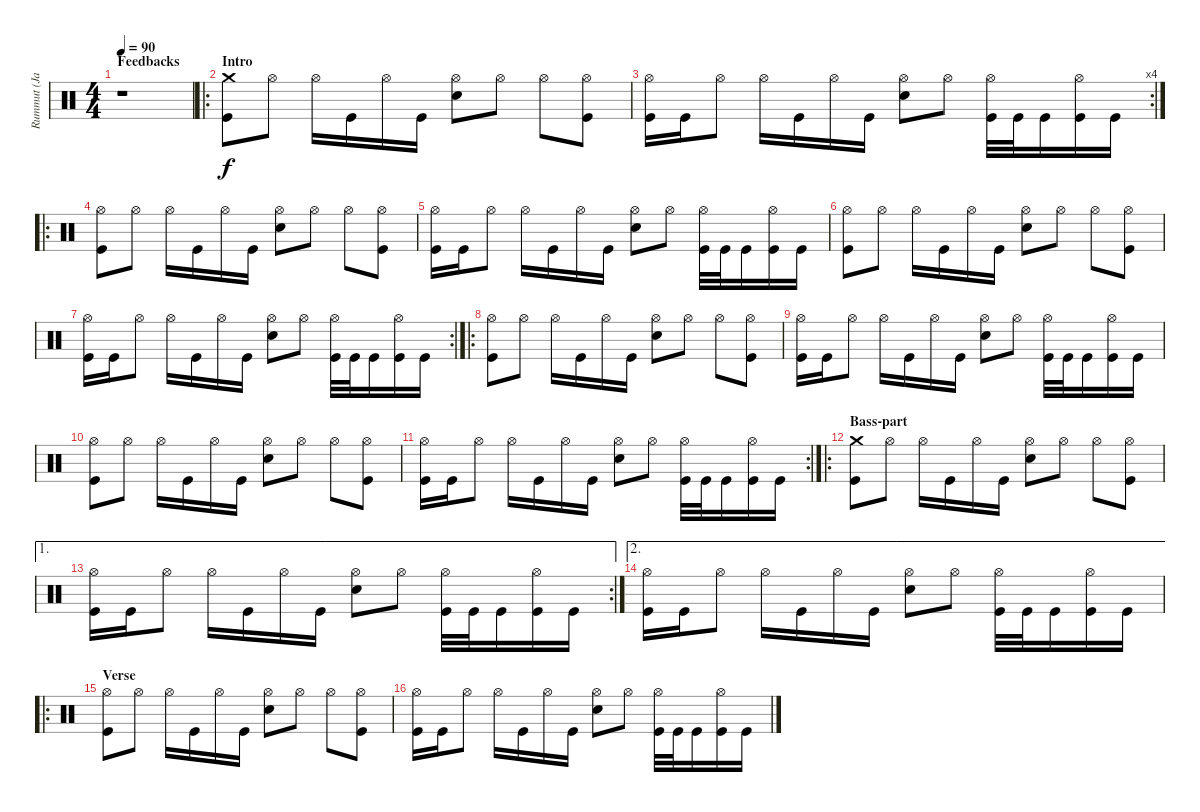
\track ("Rummut (Janne)" "Rummut (Ja") {instrument percussion}
\staff {score}
\articulation defaults
\ts (4 4)
\section ("" "Feedbacks")
\tempo 90
\clef neutral
\ks c
r.1{dy f} |
\ro
\section ("" "Intro")
("Crash medium (hit)" "Kick (hit)").8 "Hi-Hat (open)".8 "Hi-Hat (open)".16 "Kick (hit)".16 "Hi-Hat (open)".16 "Kick (hit)".16 ("Hi-Hat (open)" "Snare (hit) 2").8 "Hi-Hat (open)".8 "Hi-Hat (open)".8 ("Hi-Hat (open)" "Kick (hit)").8 |
\rc 4
("Hi-Hat (open)" "Kick (hit)").16 "Kick (hit)".16 "Hi-Hat (open)".8 "Hi-Hat (open)".16 "Kick (hit)".16 "Hi-Hat (open)".16 "Kick (hit)".16 ("Hi-Hat (open)" "Snare (hit) 2").8 "Hi-Hat (open)".8 ("Hi-Hat (open)" "Kick (hit)").32 "Kick (hit)".32 "Kick (hit)".16 ("Hi-Hat (open)" "Kick (hit)").16 "Kick (hit)".16 |
\ro
("Hi-Hat (open)" "Kick (hit)").8 "Hi-Hat (open)".8 "Hi-Hat (open)".16 "Kick (hit)".16 "Hi-Hat (open)".16 "Kick (hit)".16 ("Hi-Hat (open)" "Snare (hit) 2").8 "Hi-Hat (open)".8 "Hi-Hat (open)".8 ("Hi-Hat (open)" "Kick (hit)").8 |
("Hi-Hat (open)" "Kick (hit)").16 "Kick (hit)".16 "Hi-Hat (open)".8 "Hi-Hat (open)".16 "Kick (hit)".16 "Hi-Hat (open)".16 "Kick (hit)".16 ("Hi-Hat (open)" "Snare (hit) 2").8 "Hi-Hat (open)".8 ("Hi-Hat (open)" "Kick (hit)").32 "Kick (hit)".32 "Kick (hit)".16 ("Hi-Hat (open)" "Kick (hit)").16 "Kick (hit)".16 |
("Hi-Hat (open)" "Kick (hit)").8 "Hi-Hat (open)".8 "Hi-Hat (open)".16 "Kick (hit)".16 "Hi-Hat (open)".16 "Kick (hit)".16 ("Hi-Hat (open)" "Snare (hit) 2").8 "Hi-Hat (open)".8 "Hi-Hat (open)".8 ("Hi-Hat (open)" "Kick (hit)").8 |
\rc 2
("Hi-Hat (open)" "Kick (hit)").16 "Kick (hit)".16 "Hi-Hat (open)".8 "Hi-Hat (open)".16 "Kick (hit)".16 "Hi-Hat (open)".16 "Kick (hit)".16 ("Hi-Hat (open)" "Snare (hit) 2").8 "Hi-Hat (open)".8 ("Hi-Hat (open)" "Kick (hit)").32 "Kick (hit)".32 "Kick (hit)".16 ("Hi-Hat (open)" "Kick (hit)").16 "Kick (hit)".16 |
\ro
("Hi-Hat (open)" "Kick (hit)").8 "Hi-Hat (open)".8 "Hi-Hat (open)".16 "Kick (hit)".16 "Hi-Hat (open)".16 "Kick (hit)".16 ("Hi-Hat (open)" "Snare (hit) 2").8 "Hi-Hat (open)".8 "Hi-Hat (open)".8 ("Hi-Hat (open)" "Kick (hit)").8 |
("Hi-Hat (open)" "Kick (hit)").16 "Kick (hit)".16 "Hi-Hat (open)".8 "Hi-Hat (open)".16 "Kick (hit)".16 "Hi-Hat (open)".16 "Kick (hit)".16 ("Hi-Hat (open)" "Snare (hit) 2").8 "Hi-Hat (open)".8 ("Hi-Hat (open)" "Kick (hit)").32 "Kick (hit)".32 "Kick (hit)".16 ("Hi-Hat (open)" "Kick (hit)").16 "Kick (hit)".16 |
("Hi-Hat (open)" "Kick (hit)").8 "Hi-Hat (open)".8 "Hi-Hat (open)".16 "Kick (hit)".16 "Hi-Hat (open)".16 "Kick (hit)".16 ("Hi-Hat (open)" "Snare (hit) 2").8 "Hi-Hat (open)".8 "Hi-Hat (open)".8 ("Hi-Hat (open)" "Kick (hit)").8 |
\rc 2
("Hi-Hat (open)" "Kick (hit)").16 "Kick (hit)".16 "Hi-Hat (open)".8 "Hi-Hat (open)".16 "Kick (hit)".16 "Hi-Hat (open)".16 "Kick (hit)".16 ("Hi-Hat (open)" "Snare (hit) 2").8 "Hi-Hat (open)".8 ("Hi-Hat (open)" "Kick (hit)").32 "Kick (hit)".32 "Kick (hit)".16 ("Hi-Hat (open)" "Kick (hit)").16 "Kick (hit)".16 |
\ro
\section ("" "Bass-part")
("Crash medium (hit)" "Kick (hit)").8 "Hi-Hat (open)".8 "Hi-Hat (open)".16 "Kick (hit)".16 "Hi-Hat (open)".16 "Kick (hit)".16 ("Hi-Hat (open)" "Snare (hit) 2").8 "Hi-Hat (open)".8 "Hi-Hat (open)".8 ("Hi-Hat (open)" "Kick (hit)").8 |
\ae 1
\rc 2
("Hi-Hat (open)" "Kick (hit)").16 "Kick (hit)".16 "Hi-Hat (open)".8 "Hi-Hat (open)".16 "Kick (hit)".16 "Hi-Hat (open)".16 "Kick (hit)".16 ("Hi-Hat (open)" "Snare (hit) 2").8 "Hi-Hat (open)".8 ("Hi-Hat (open)" "Kick (hit)").32 "Kick (hit)".32 "Kick (hit)".16 ("Hi-Hat (open)" "Kick (hit)").16 "Kick (hit)".16 |
\ae 2
("Hi-Hat (open)" "Kick (hit)").16 "Kick (hit)".16 "Hi-Hat (open)".8 "Hi-Hat (open)".16 "Kick (hit)".16 "Hi-Hat (open)".16 "Kick (hit)".16 ("Hi-Hat (open)" "Snare (hit) 2").8 "Hi-Hat (open)".8 ("Hi-Hat (open)" "Kick (hit)").32 "Kick (hit)".32 "Kick (hit)".16 ("Hi-Hat (open)" "Kick (hit)").16 "Kick (hit)".16 |
\ro
\section ("" "Verse")
("Hi-Hat (open)" "Kick (hit)").8 "Hi-Hat (open)".8 "Hi-Hat (open)".16 "Kick (hit)".16 "Hi-Hat (open)".16 "Kick (hit)".16 ("Hi-Hat (open)" "Snare (hit) 2").8 "Hi-Hat (open)".8 "Hi-Hat (open)".8 ("Hi-Hat (open)" "Kick (hit)").8 |
("Hi-Hat (open)" "Kick (hit)").16 "Kick (hit)".16 "Hi-Hat (open)".8 "Hi-Hat (open)".16 "Kick (hit)".16 "Hi-Hat (open)".16 "Kick (hit)".16 ("Hi-Hat (open)" "Snare (hit) 2").8 "Hi-Hat (open)".8 ("Hi-Hat (open)" "Kick (hit)").32 "Kick (hit)".32 "Kick (hit)".16 ("Hi-Hat (open)" "Kick (hit)").16 "Kick (hit)".16
